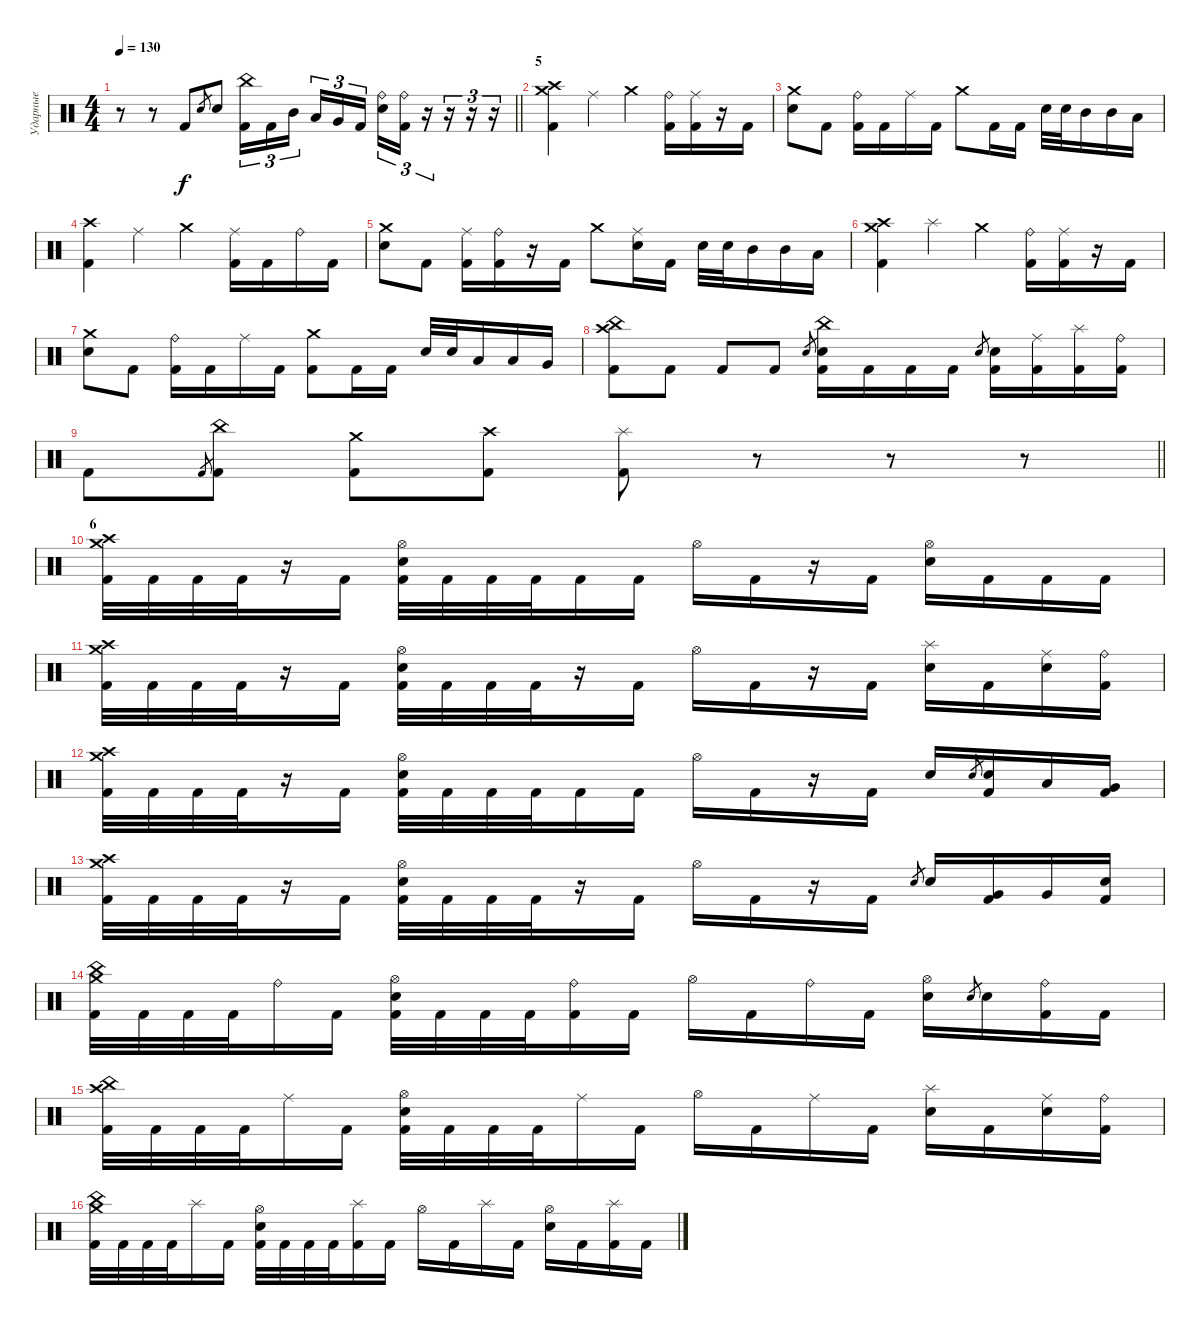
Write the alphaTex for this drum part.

\track ("Ударные" "Ударные") {instrument percussion}
\staff {score}
\articulation defaults
\ts (4 4)
\tempo 130
\clef neutral
\barLineRight lightlight
\ks c
r.8{dy f} r.8 "Kick (hit) 2".8 "Electric Snare (hit)".8{gr} "Electric Snare (hit)".8 ("China (hit)" "Kick (hit) 2").16{tu (3 2)} "Kick (hit) 2".16{tu (3 2)} "Mid Tom (hit)".16{tu (3 2) beam splitsecondary} "Low Tom (hit)".16{tu (3 2)} "Very Low Tom (hit)".16{tu (3 2)} "Kick (hit) 2".16{tu (3 2)} ("Ride (bell)" "Electric Snare (hit)").16{tu (3 2)} ("Ride (bell)" "Kick (hit) 2").16{tu (3 2)} r.16{tu (3 2)} r.16{tu (3 2)} r.16{tu (3 2)} r.16{tu (3 2)} |
\section ("" "5")
("Crash high (hit)" "Crash medium (hit)" "Kick (hit) 2").4 "Ride (middle)".4 "Crash medium (hit)".4 ("Ride (bell)" "Kick (hit) 2").16 ("Ride (middle)" "Kick (hit) 2").16 r.16 "Kick (hit) 2".16 |
("Crash medium (hit)" "Electric Snare (hit)").8 "Kick (hit) 2".8 ("Ride (bell)" "Kick (hit) 2").16 "Kick (hit) 2".16 "Ride (middle)".16 "Kick (hit) 2".16 "Crash medium (hit)".8 "Kick (hit) 2".16 "Kick (hit) 2".16 "Electric Snare (hit)".32 "Electric Snare (hit)".32 "Mid Tom (hit)".16 "Mid Tom (hit)".16 "Low Tom (hit)".16 |
("Crash high (hit)" "Kick (hit) 2").4 "Ride (middle)".4 "Crash medium (hit)".4 ("Ride (middle)" "Kick (hit) 2").16 "Kick (hit) 2".16 "Ride (bell)".16 "Kick (hit) 2".16 |
("Crash medium (hit)" "Electric Snare (hit)").8 "Kick (hit) 2".8 ("Ride (middle)" "Kick (hit) 2").16 ("Ride (bell)" "Kick (hit) 2").16 r.16 "Kick (hit) 2".16 "Crash medium (hit)".8 ("Ride (middle)" "Electric Snare (hit)").16 "Kick (hit) 2".16 "Electric Snare (hit)".32 "Electric Snare (hit)".32 "Mid Tom (hit)".16 "Mid Tom (hit)".16 "Low Tom (hit)".16 |
("Crash high (hit)" "Crash medium (hit)" "Kick (hit) 2").4 "Splash (hit)".4 "Crash medium (hit)".4 ("Ride (bell)" "Kick (hit) 2").16 ("Ride (middle)" "Kick (hit) 2").16 r.16 "Kick (hit) 2".16 |
("Crash medium (hit)" "Electric Snare (hit)").8 "Kick (hit) 2".8 ("Ride (bell)" "Kick (hit) 2").16 "Kick (hit) 2".16 "Ride (middle)".16 "Kick (hit) 2".16 ("Crash medium (hit)" "Kick (hit) 2").8 "Kick (hit) 2".16 "Kick (hit) 2".16 "Electric Snare (hit)".32 "Electric Snare (hit)".32 "Low Tom (hit)".16 "Low Tom (hit)".16 "Very Low Tom (hit)".16 |
("China (hit)" "Crash high (hit)" "Kick (hit) 2").8 "Kick (hit) 2".8 "Kick (hit) 2".8 "Kick (hit) 2".8 "Electric Snare (hit)".8{gr} ("China (hit)" "Electric Snare (hit)" "Kick (hit) 2").16 "Kick (hit) 2".16 "Kick (hit) 2".16 "Kick (hit) 2".16 "Electric Snare (hit)".8{gr} ("Electric Snare (hit)" "Kick (hit) 2").16 ("Ride (middle)" "Kick (hit) 2").16 ("Splash (hit)" "Kick (hit) 2").16 ("Ride (bell)" "Kick (hit) 2").16 |
\barLineRight lightlight "Kick (hit) 2".8 "Kick (hit) 2".8{gr}
("China (hit)" "Kick (hit) 2").8 ("Crash medium (hit)" "Kick (hit) 2").8 ("Crash high (hit)" "Kick (hit) 2").8 ("Splash (hit)" "Kick (hit) 2").8 r.8 r.8 r.8 |
\section ("" "6")
("Crash medium (hit)" "Crash high (hit)" "Kick (hit) 2").32 "Kick (hit) 2".32 "Kick (hit) 2".32 "Kick (hit) 2".32 r.16 "Kick (hit) 2".16 ("Hi-Hat (open)" "Electric Snare (hit)" "Kick (hit) 2").32 "Kick (hit) 2".32 "Kick (hit) 2".32 "Kick (hit) 2".32 "Kick (hit) 2".16 "Kick (hit) 2".16 "Hi-Hat (open)".16 "Kick (hit) 2".16 r.16 "Kick (hit) 2".16 ("Hi-Hat (open)" "Electric Snare (hit)").16 "Kick (hit) 2".16 "Kick (hit) 2".16 "Kick (hit) 2".16 |
("Crash medium (hit)" "Crash high (hit)" "Kick (hit) 2").32 "Kick (hit) 2".32 "Kick (hit) 2".32 "Kick (hit) 2".32 r.16 "Kick (hit) 2".16 ("Hi-Hat (open)" "Electric Snare (hit)" "Kick (hit) 2").32 "Kick (hit) 2".32 "Kick (hit) 2".32 "Kick (hit) 2".32 r.16 "Kick (hit) 2".16 "Hi-Hat (open)".16 "Kick (hit) 2".16 r.16 "Kick (hit) 2".16 ("Splash (hit)" "Electric Snare (hit)").16 "Kick (hit) 2".16 ("Ride (middle)" "Electric Snare (hit)").16 ("Ride (bell)" "Kick (hit) 2").16 |
("Crash medium (hit)" "Crash high (hit)" "Kick (hit) 2").32 "Kick (hit) 2".32 "Kick (hit) 2".32 "Kick (hit) 2".32 r.16 "Kick (hit) 2".16 ("Hi-Hat (open)" "Electric Snare (hit)" "Kick (hit) 2").32 "Kick (hit) 2".32 "Kick (hit) 2".32 "Kick (hit) 2".32 "Kick (hit) 2".16 "Kick (hit) 2".16 "Hi-Hat (open)".16 "Kick (hit) 2".16 r.16 "Kick (hit) 2".16 "Electric Snare (hit)".16 "Electric Snare (hit)".8{gr} ("Electric Snare (hit)" "Kick (hit) 2").16 "Low Tom (hit)".16 ("Very Low Tom (hit)" "Kick (hit) 2").16 |
("Crash medium (hit)" "Crash high (hit)" "Kick (hit) 2").32 "Kick (hit) 2".32 "Kick (hit) 2".32 "Kick (hit) 2".32 r.16 "Kick (hit) 2".16 ("Hi-Hat (open)" "Electric Snare (hit)" "Kick (hit) 2").32 "Kick (hit) 2".32 "Kick (hit) 2".32 "Kick (hit) 2".32 r.16 "Kick (hit) 2".16 "Hi-Hat (open)".16 "Kick (hit) 2".16 r.16 "Kick (hit) 2".16 "Electric Snare (hit)".8{gr} "Electric Snare (hit)".16 ("Very Low Tom (hit)" "Kick (hit) 2").16 "Very Low Tom (hit)".16 ("Electric Snare (hit)" "Kick (hit) 2").16 |
("Crash medium (hit)" "China (hit)" "Kick (hit) 2").32 "Kick (hit) 2".32 "Kick (hit) 2".32 "Kick (hit) 2".32 "Ride (bell)".16 "Kick (hit) 2".16 ("Hi-Hat (open)" "Electric Snare (hit)" "Kick (hit) 2").32 "Kick (hit) 2".32 "Kick (hit) 2".32 "Kick (hit) 2".32 ("Ride (bell)" "Kick (hit) 2").16 "Kick (hit) 2".16 "Hi-Hat (open)".16 "Kick (hit) 2".16 "Ride (bell)".16 "Kick (hit) 2".16 ("Hi-Hat (open)" "Electric Snare (hit)").16 "Electric Snare (hit)".8{gr} "Electric Snare (hit)".16 ("Ride (bell)" "Kick (hit) 2").16 "Kick (hit) 2".16 |
("Crash high (hit)" "China (hit)" "Kick (hit) 2").32 "Kick (hit) 2".32 "Kick (hit) 2".32 "Kick (hit) 2".32 "Ride (middle)".16 "Kick (hit) 2".16 ("Hi-Hat (open)" "Electric Snare (hit)" "Kick (hit) 2").32 "Kick (hit) 2".32 "Kick (hit) 2".32 "Kick (hit) 2".32 "Ride (middle)".16 "Kick (hit) 2".16 "Hi-Hat (open)".16 "Kick (hit) 2".16 "Ride (middle)".16 "Kick (hit) 2".16 ("Splash (hit)" "Electric Snare (hit)").16 "Kick (hit) 2".16 ("Ride (middle)" "Electric Snare (hit)").16 ("Ride (bell)" "Kick (hit) 2").16 |
("Crash medium (hit)" "China (hit)" "Kick (hit) 2").32 "Kick (hit) 2".32 "Kick (hit) 2".32 "Kick (hit) 2".32 "Splash (hit)".16 "Kick (hit) 2".16 ("Hi-Hat (open)" "Electric Snare (hit)" "Kick (hit) 2").32 "Kick (hit) 2".32 "Kick (hit) 2".32 "Kick (hit) 2".32 ("Splash (hit)" "Kick (hit) 2").16 "Kick (hit) 2".16 "Hi-Hat (open)".16 "Kick (hit) 2".16 "Splash (hit)".16 "Kick (hit) 2".16 ("Hi-Hat (open)" "Electric Snare (hit)").16 "Kick (hit) 2".16 ("Splash (hit)" "Kick (hit) 2").16 "Kick (hit) 2".16
